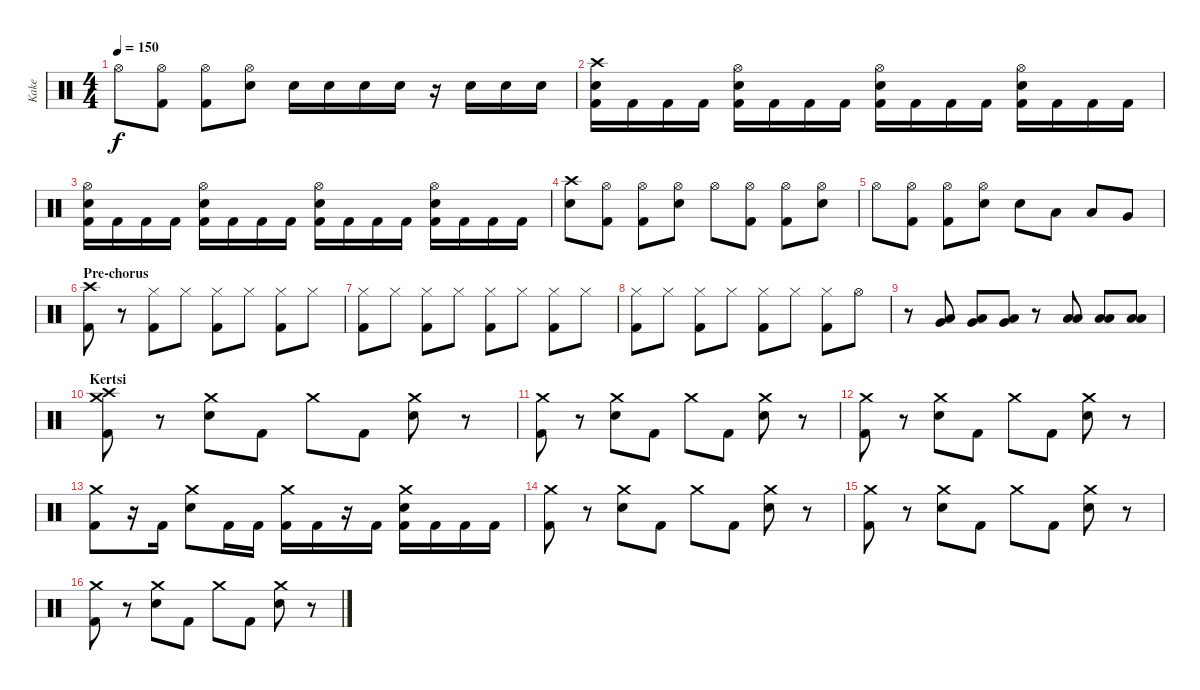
\track ("Kake" "Kake") {instrument percussion}
\staff {score}
\articulation defaults
\ts (4 4)
\tempo 150
\clef neutral
\ks c "Hi-Hat (open)".8{dy f}
("Hi-Hat (open)" "Kick (hit) 2").8 ("Hi-Hat (open)" "Kick (hit) 2").8 ("Hi-Hat (open)" "Electric Snare (hit)").8 "Electric Snare (hit)".16 "Electric Snare (hit)".16 "Electric Snare (hit)".16 "Electric Snare (hit)".16 r.16 "Electric Snare (hit)".16 "Electric Snare (hit)".16 "Electric Snare (hit)".16 |
("Crash high (hit)" "Electric Snare (hit)" "Kick (hit) 2").16 "Kick (hit) 2".16 "Kick (hit) 2".16 "Kick (hit) 2".16 ("Hi-Hat (open)" "Electric Snare (hit)" "Kick (hit) 2").16 "Kick (hit) 2".16 "Kick (hit) 2".16 "Kick (hit) 2".16 ("Hi-Hat (open)" "Electric Snare (hit)" "Kick (hit) 2").16 "Kick (hit) 2".16 "Kick (hit) 2".16 "Kick (hit) 2".16 ("Hi-Hat (open)" "Electric Snare (hit)" "Kick (hit) 2").16 "Kick (hit) 2".16 "Kick (hit) 2".16 "Kick (hit) 2".16 |
("Hi-Hat (open)" "Electric Snare (hit)" "Kick (hit) 2").16 "Kick (hit) 2".16 "Kick (hit) 2".16 "Kick (hit) 2".16 ("Hi-Hat (open)" "Electric Snare (hit)" "Kick (hit) 2").16 "Kick (hit) 2".16 "Kick (hit) 2".16 "Kick (hit) 2".16 ("Hi-Hat (open)" "Electric Snare (hit)" "Kick (hit) 2").16 "Kick (hit) 2".16 "Kick (hit) 2".16 "Kick (hit) 2".16 ("Hi-Hat (open)" "Electric Snare (hit)" "Kick (hit) 2").16 "Kick (hit) 2".16 "Kick (hit) 2".16 "Kick (hit) 2".16 |
("Crash high (hit)" "Electric Snare (hit)").8 ("Hi-Hat (open)" "Kick (hit) 2").8 ("Hi-Hat (open)" "Kick (hit) 2").8 ("Hi-Hat (open)" "Electric Snare (hit)").8 "Hi-Hat (open)".8 ("Hi-Hat (open)" "Kick (hit) 2").8 ("Hi-Hat (open)" "Kick (hit) 2").8 ("Hi-Hat (open)" "Electric Snare (hit)").8 |
"Hi-Hat (open)".8 ("Hi-Hat (open)" "Kick (hit) 2").8 ("Hi-Hat (open)" "Kick (hit) 2").8 ("Hi-Hat (open)" "Electric Snare (hit)").8 "Electric Snare (hit)".8 "Low Tom (hit)".8 "Low Tom (hit)".8 "Very Low Tom (hit)".8 |
\section ("" "Pre-chorus")
("Crash high (hit)" "Kick (hit) 2").8 r.8 ("Hi-Hat (closed)" "Kick (hit) 2").8 "Hi-Hat (closed)".8 ("Hi-Hat (closed)" "Kick (hit) 2").8 "Hi-Hat (closed)".8 ("Hi-Hat (closed)" "Kick (hit) 2").8 "Hi-Hat (closed)".8 |
("Hi-Hat (closed)" "Kick (hit) 2").8 "Hi-Hat (closed)".8 ("Hi-Hat (closed)" "Kick (hit) 2").8 "Hi-Hat (closed)".8 ("Hi-Hat (closed)" "Kick (hit) 2").8 "Hi-Hat (closed)".8 ("Hi-Hat (closed)" "Kick (hit) 2").8 "Hi-Hat (closed)".8 |
("Hi-Hat (closed)" "Kick (hit) 2").8 "Hi-Hat (closed)".8 ("Hi-Hat (closed)" "Kick (hit) 2").8 "Hi-Hat (closed)".8 ("Hi-Hat (closed)" "Kick (hit) 2").8 "Hi-Hat (closed)".8 ("Hi-Hat (closed)" "Kick (hit) 2").8 "Hi-Hat (open)".8 |
r.8 ("Very Low Tom (hit)" "Low Floor Tom (hit)").8 ("Very Low Tom (hit)" "Low Floor Tom (hit)").8 ("Very Low Tom (hit)" "Low Floor Tom (hit)").8 r.8 ("Low Tom (hit)" "Low Floor Tom (hit)").8 ("Low Tom (hit)" "Low Floor Tom (hit)").8 ("Low Tom (hit)" "Low Floor Tom (hit)").8 |
\section ("" "Kertsi")
("Crash medium (hit)" "Crash high (hit)" "Kick (hit) 2").8 r.8 ("Crash medium (hit)" "Electric Snare (hit)").8 "Kick (hit) 2".8 "Crash medium (hit)".8 "Kick (hit) 2".8 ("Crash medium (hit)" "Electric Snare (hit)").8 r.8 |
("Crash medium (hit)" "Kick (hit) 2").8 r.8 ("Crash medium (hit)" "Electric Snare (hit)").8 "Kick (hit) 2".8 "Crash medium (hit)".8 "Kick (hit) 2".8 ("Crash medium (hit)" "Electric Snare (hit)").8 r.8 |
("Crash medium (hit)" "Kick (hit) 2").8 r.8 ("Crash medium (hit)" "Electric Snare (hit)").8 "Kick (hit) 2".8 "Crash medium (hit)".8 "Kick (hit) 2".8 ("Crash medium (hit)" "Electric Snare (hit)").8 r.8 |
("Crash medium (hit)" "Kick (hit) 2").8 r.16 "Kick (hit) 2".16 ("Crash medium (hit)" "Electric Snare (hit)").8 "Kick (hit) 2".16 "Kick (hit) 2".16 ("Crash medium (hit)" "Kick (hit) 2").16 "Kick (hit) 2".16 r.16 "Kick (hit) 2".16 ("Crash medium (hit)" "Electric Snare (hit)" "Kick (hit) 2").16 "Kick (hit) 2".16 "Kick (hit) 2".16 "Kick (hit) 2".16 |
("Crash medium (hit)" "Kick (hit) 2").8 r.8 ("Crash medium (hit)" "Electric Snare (hit)").8 "Kick (hit) 2".8 "Crash medium (hit)".8 "Kick (hit) 2".8 ("Crash medium (hit)" "Electric Snare (hit)").8 r.8 |
("Crash medium (hit)" "Kick (hit) 2").8 r.8 ("Crash medium (hit)" "Electric Snare (hit)").8 "Kick (hit) 2".8 "Crash medium (hit)".8 "Kick (hit) 2".8 ("Crash medium (hit)" "Electric Snare (hit)").8 r.8 |
("Crash medium (hit)" "Kick (hit) 2").8 r.8 ("Crash medium (hit)" "Electric Snare (hit)").8 "Kick (hit) 2".8 "Crash medium (hit)".8 "Kick (hit) 2".8 ("Crash medium (hit)" "Electric Snare (hit)").8 r.8
